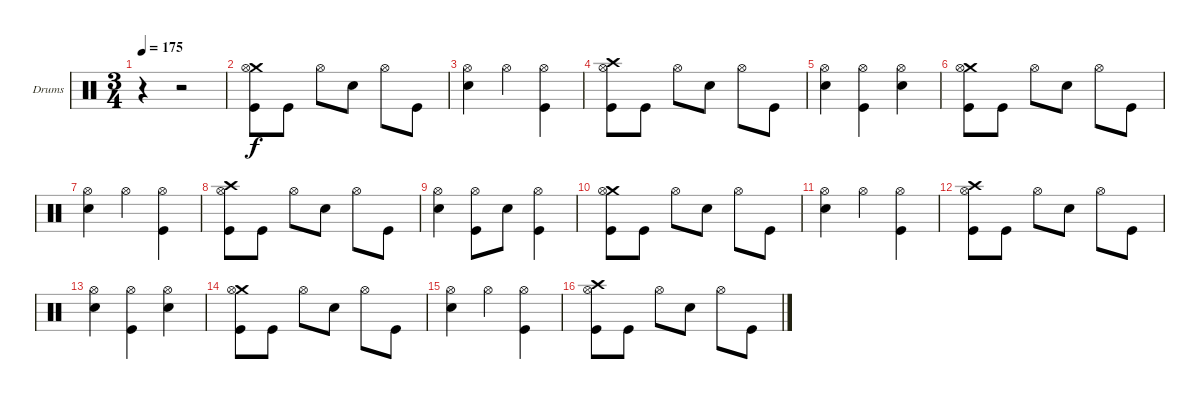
\bracketExtendMode groupsimilarinstruments
\firstSystemTrackNameOrientation horizontal
\otherSystemsTrackNameOrientation horizontal
\track ("Drums" "Drums") {instrument percussion}
\staff {score}
\articulation defaults
\ts (3 4)
\tempo 175
\clef neutral
\ks c
r.4{dy f} r.2 |
("Crash medium (hit)" "Hi-Hat (open)" "Kick (hit)").8 "Kick (hit)".8 "Hi-Hat (open)".8 "Snare (hit) 2".8 "Hi-Hat (open)".8 "Kick (hit)".8 |
("Hi-Hat (open)" "Snare (hit) 2").4 "Hi-Hat (open)".4 ("Hi-Hat (open)" "Kick (hit)").4 |
("Crash high (hit)" "Hi-Hat (open)" "Kick (hit)").8 "Kick (hit)".8 "Hi-Hat (open)".8 "Snare (hit) 2".8 "Hi-Hat (open)".8 "Kick (hit)".8 |
("Hi-Hat (open)" "Snare (hit) 2").4 ("Hi-Hat (open)" "Kick (hit)").4 ("Hi-Hat (open)" "Snare (hit) 2").4 |
("Crash medium (hit)" "Hi-Hat (open)" "Kick (hit)").8 "Kick (hit)".8 "Hi-Hat (open)".8 "Snare (hit) 2".8 "Hi-Hat (open)".8 "Kick (hit)".8 |
("Hi-Hat (open)" "Snare (hit) 2").4 "Hi-Hat (open)".4 ("Hi-Hat (open)" "Kick (hit)").4 |
("Crash high (hit)" "Hi-Hat (open)" "Kick (hit)").8 "Kick (hit)".8 "Hi-Hat (open)".8 "Snare (hit) 2".8 "Hi-Hat (open)".8 "Kick (hit)".8 |
("Hi-Hat (open)" "Snare (hit) 2").4 ("Hi-Hat (open)" "Kick (hit)").8 "Snare (hit) 2".8 ("Hi-Hat (open)" "Kick (hit)").4 |
("Crash medium (hit)" "Hi-Hat (open)" "Kick (hit)").8 "Kick (hit)".8 "Hi-Hat (open)".8 "Snare (hit) 2".8 "Hi-Hat (open)".8 "Kick (hit)".8 |
("Hi-Hat (open)" "Snare (hit) 2").4 "Hi-Hat (open)".4 ("Hi-Hat (open)" "Kick (hit)").4 |
("Crash high (hit)" "Hi-Hat (open)" "Kick (hit)").8 "Kick (hit)".8 "Hi-Hat (open)".8 "Snare (hit) 2".8 "Hi-Hat (open)".8 "Kick (hit)".8 |
("Hi-Hat (open)" "Snare (hit) 2").4 ("Hi-Hat (open)" "Kick (hit)").4 ("Hi-Hat (open)" "Snare (hit) 2").4 |
("Crash medium (hit)" "Hi-Hat (open)" "Kick (hit)").8 "Kick (hit)".8 "Hi-Hat (open)".8 "Snare (hit) 2".8 "Hi-Hat (open)".8 "Kick (hit)".8 |
("Hi-Hat (open)" "Snare (hit) 2").4 "Hi-Hat (open)".4 ("Hi-Hat (open)" "Kick (hit)").4 |
("Crash high (hit)" "Hi-Hat (open)" "Kick (hit)").8 "Kick (hit)".8 "Hi-Hat (open)".8 "Snare (hit) 2".8 "Hi-Hat (open)".8 "Kick (hit)".8
